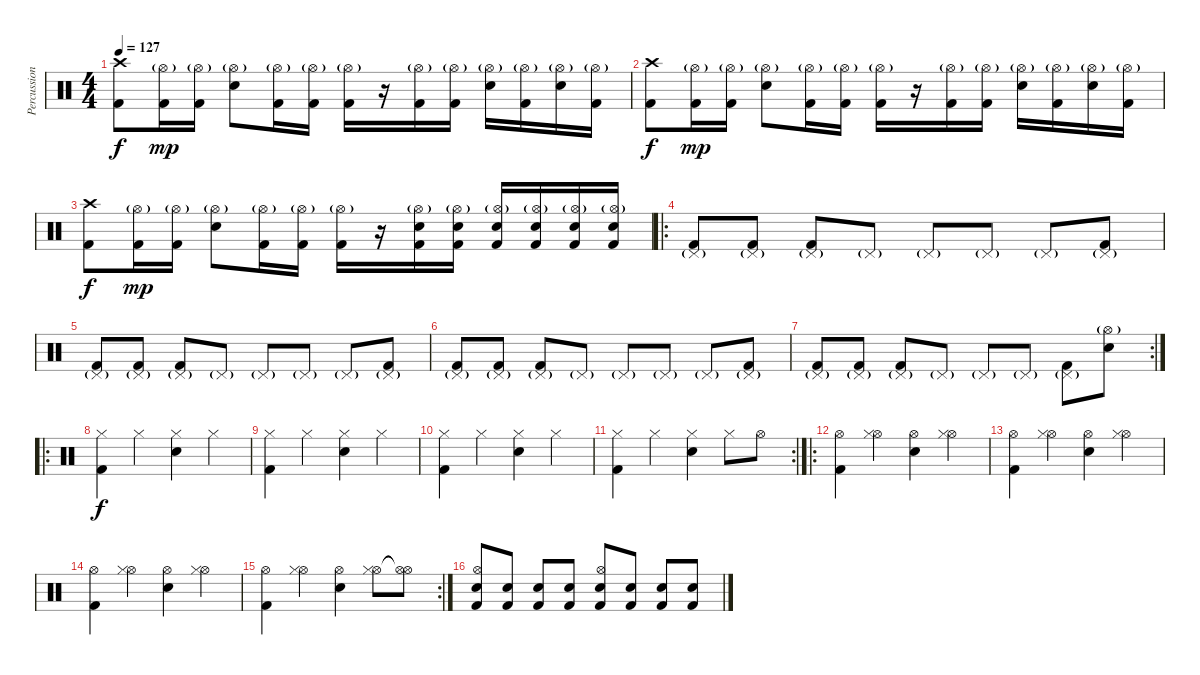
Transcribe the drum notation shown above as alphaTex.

\track ("Percussions" "Percussion") {instrument percussion}
\staff {score}
\articulation defaults
\ts (4 4)
\tempo 127
\clef neutral
\ks c
("Crash high (hit)" "Kick (hit) 2").8{dy f} ("Hi-Hat (open)"{g} "Kick (hit) 2").16{dy mp} ("Hi-Hat (open)"{g} "Kick (hit) 2").16 ("Hi-Hat (open)"{g} "Electric Snare (hit)").8 ("Hi-Hat (open)"{g} "Kick (hit) 2").16 ("Hi-Hat (open)"{g} "Kick (hit) 2").16 ("Hi-Hat (open)"{g} "Kick (hit) 2").16 r.16 ("Hi-Hat (open)"{g} "Kick (hit) 2").16 ("Hi-Hat (open)"{g} "Kick (hit) 2").16 ("Hi-Hat (open)"{g} "Electric Snare (hit)").16 ("Hi-Hat (open)"{g} "Kick (hit) 2").16 ("Hi-Hat (open)"{g} "Electric Snare (hit)").16 ("Hi-Hat (open)"{g} "Kick (hit) 2").16 |
("Crash high (hit)" "Kick (hit) 2").8{dy f} ("Hi-Hat (open)"{g} "Kick (hit) 2").16{dy mp} ("Hi-Hat (open)"{g} "Kick (hit) 2").16 ("Hi-Hat (open)"{g} "Electric Snare (hit)").8 ("Hi-Hat (open)"{g} "Kick (hit) 2").16 ("Hi-Hat (open)"{g} "Kick (hit) 2").16 ("Hi-Hat (open)"{g} "Kick (hit) 2").16 r.16 ("Hi-Hat (open)"{g} "Kick (hit) 2").16 ("Hi-Hat (open)"{g} "Kick (hit) 2").16 ("Hi-Hat (open)"{g} "Electric Snare (hit)").16 ("Hi-Hat (open)"{g} "Kick (hit) 2").16 ("Hi-Hat (open)"{g} "Electric Snare (hit)").16 ("Hi-Hat (open)"{g} "Kick (hit) 2").16 |
("Crash high (hit)" "Kick (hit) 2").8{dy f} ("Hi-Hat (open)"{g} "Kick (hit) 2").16{dy mp} ("Hi-Hat (open)"{g} "Kick (hit) 2").16 ("Hi-Hat (open)"{g} "Electric Snare (hit)").8 ("Hi-Hat (open)"{g} "Kick (hit) 2").16 ("Hi-Hat (open)"{g} "Kick (hit) 2").16 ("Hi-Hat (open)"{g} "Kick (hit) 2").16 r.16 ("Hi-Hat (open)"{g} "Kick (hit) 2" "Electric Snare (hit)").16 ("Hi-Hat (open)"{g} "Kick (hit) 2" "Electric Snare (hit)").16 ("Hi-Hat (open)"{g} "Kick (hit) 2" "Electric Snare (hit)").16 ("Hi-Hat (open)"{g} "Kick (hit) 2" "Electric Snare (hit)").16 ("Hi-Hat (open)"{g} "Kick (hit) 2" "Electric Snare (hit)").16 ("Hi-Hat (open)"{g} "Kick (hit) 2" "Electric Snare (hit)").16 |
\ro
("Pedal Hi-Hat (hit)"{g} "Kick (hit) 2").8 ("Pedal Hi-Hat (hit)"{g} "Kick (hit) 2").8 ("Pedal Hi-Hat (hit)"{g} "Kick (hit) 2").8 "Pedal Hi-Hat (hit)"{g}.8 "Pedal Hi-Hat (hit)"{g}.8 "Pedal Hi-Hat (hit)"{g}.8 "Pedal Hi-Hat (hit)"{g}.8 ("Pedal Hi-Hat (hit)"{g} "Kick (hit) 2").8 |
("Pedal Hi-Hat (hit)"{g} "Kick (hit) 2").8 ("Pedal Hi-Hat (hit)"{g} "Kick (hit) 2").8 ("Pedal Hi-Hat (hit)"{g} "Kick (hit) 2").8 "Pedal Hi-Hat (hit)"{g}.8 "Pedal Hi-Hat (hit)"{g}.8 "Pedal Hi-Hat (hit)"{g}.8 "Pedal Hi-Hat (hit)"{g}.8 ("Pedal Hi-Hat (hit)"{g} "Kick (hit) 2").8 |
("Pedal Hi-Hat (hit)"{g} "Kick (hit) 2").8 ("Pedal Hi-Hat (hit)"{g} "Kick (hit) 2").8 ("Pedal Hi-Hat (hit)"{g} "Kick (hit) 2").8 "Pedal Hi-Hat (hit)"{g}.8 "Pedal Hi-Hat (hit)"{g}.8 "Pedal Hi-Hat (hit)"{g}.8 "Pedal Hi-Hat (hit)"{g}.8 ("Pedal Hi-Hat (hit)"{g} "Kick (hit) 2").8 |
\rc 2
("Pedal Hi-Hat (hit)"{g} "Kick (hit) 2").8 ("Pedal Hi-Hat (hit)"{g} "Kick (hit) 2").8 ("Pedal Hi-Hat (hit)"{g} "Kick (hit) 2").8 "Pedal Hi-Hat (hit)"{g}.8 "Pedal Hi-Hat (hit)"{g}.8 "Pedal Hi-Hat (hit)"{g}.8 ("Pedal Hi-Hat (hit)"{g} "Kick (hit) 2").8 ("Hi-Hat (open)"{g} "Electric Snare (hit)").8 |
\ro
("Hi-Hat (closed)" "Kick (hit) 2").4{dy f} "Hi-Hat (closed)".4 ("Hi-Hat (closed)" "Electric Snare (hit)").4 "Hi-Hat (closed)".4 |
("Hi-Hat (closed)" "Kick (hit) 2").4 "Hi-Hat (closed)".4 ("Hi-Hat (closed)" "Electric Snare (hit)").4 "Hi-Hat (closed)".4 |
("Hi-Hat (closed)" "Kick (hit) 2").4 "Hi-Hat (closed)".4 ("Hi-Hat (closed)" "Electric Snare (hit)").4 "Hi-Hat (closed)".4 |
\rc 2
("Hi-Hat (closed)" "Kick (hit) 2").4 "Hi-Hat (closed)".4 ("Hi-Hat (closed)" "Electric Snare (hit)").4 "Hi-Hat (closed)".8 "Hi-Hat (open)".8 |
\ro
("Hi-Hat (open)" "Kick (hit) 2").4 ("Hi-Hat (open)" "Hi-Hat (closed)").4 ("Hi-Hat (open)" "Electric Snare (hit)").4 ("Hi-Hat (open)" "Hi-Hat (closed)").4 |
("Hi-Hat (open)" "Kick (hit) 2").4 ("Hi-Hat (open)" "Hi-Hat (closed)").4 ("Hi-Hat (open)" "Electric Snare (hit)").4 ("Hi-Hat (open)" "Hi-Hat (closed)").4 |
("Hi-Hat (open)" "Kick (hit) 2").4 ("Hi-Hat (open)" "Hi-Hat (closed)").4 ("Hi-Hat (open)" "Electric Snare (hit)").4 ("Hi-Hat (open)" "Hi-Hat (closed)").4 |
\rc 2
("Hi-Hat (open)" "Kick (hit) 2").4 ("Hi-Hat (open)" "Hi-Hat (closed)").4 ("Hi-Hat (open)" "Electric Snare (hit)").4 ("Hi-Hat (open)" "Hi-Hat (closed)").8 ("Hi-Hat (open)"{t} "Hi-Hat (open)"{t}).8 |
("Hi-Hat (open)" "Kick (hit) 2" "Electric Snare (hit)").8 ("Kick (hit) 2" "Electric Snare (hit)").8 ("Kick (hit) 2" "Electric Snare (hit)").8 ("Kick (hit) 2" "Electric Snare (hit)").8 ("Hi-Hat (open)" "Kick (hit) 2" "Electric Snare (hit)").8 ("Kick (hit) 2" "Electric Snare (hit)").8 ("Kick (hit) 2" "Electric Snare (hit)").8 ("Kick (hit) 2" "Electric Snare (hit)").8
